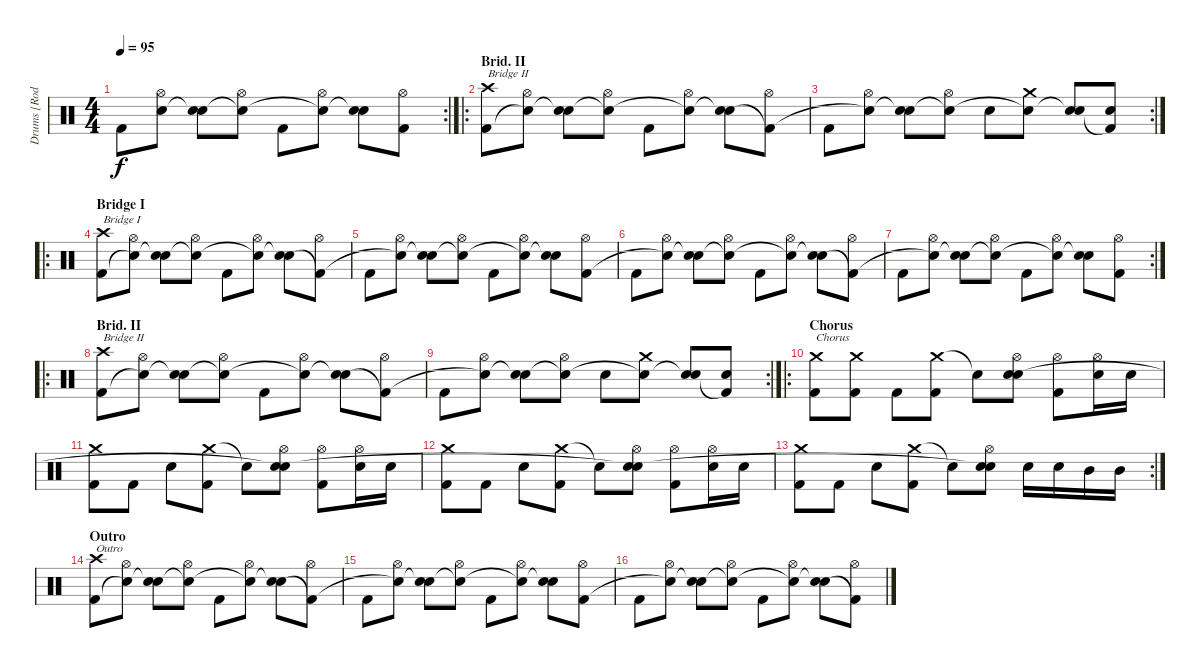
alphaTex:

\track ("Drums [Rodney Holder]" "Drums [Rod") {instrument percussion}
\staff {score}
\articulation defaults
\rc 2
\ts (4 4)
\tempo 95
\clef neutral
\ks c "Kick (hit) 2".8{dy f}
("Hi-Hat (open)" "Snare (hit)"{t}).8 ("Electric Snare (hit)" "Snare (hit)"{t}).8 ("Hi-Hat (open)" "Snare (hit)"{t}).8 "Kick (hit) 2".8 ("Hi-Hat (open)" "Snare (hit)"{t}).8 ("Electric Snare (hit)" "Snare (hit)"{t}).8 ("Hi-Hat (open)" "Kick (hit) 2").8 |
\ro
\section ("" "Brid. II")
("Crash high (hit)" "Kick (hit) 2").8{txt "Bridge II"} ("Hi-Hat (open)" "Snare (hit)"{t}).8 ("Electric Snare (hit)" "Snare (hit)"{t}).8 ("Hi-Hat (open)" "Snare (hit)"{t}).8 "Kick (hit) 2".8 ("Hi-Hat (open)" "Snare (hit)"{t}).8 ("Electric Snare (hit)" "Snare (hit)"{t}).8 ("Hi-Hat (open)" "Kick (hit) 2"{t}).8 |
\rc 2 "Kick (hit) 2".8
("Hi-Hat (open)" "Snare (hit)"{t}).8 ("Electric Snare (hit)" "Snare (hit)"{t}).8 ("Hi-Hat (open)" "Snare (hit)"{t}).8 "Electric Snare (hit)".8 ("Crash medium (hit)" "Snare (hit)"{t}).8 ("Electric Snare (hit)" "Snare (hit)"{t}).8 ("Electric Snare (hit)" "Kick (hit) 2"{t}).8 |
\ro
\section ("" "Bridge I")
("Crash high (hit)" "Kick (hit) 2").8{txt "Bridge I"} ("Hi-Hat (open)" "Snare (hit)"{t}).8 ("Electric Snare (hit)" "Snare (hit)"{t}).8 ("Hi-Hat (open)" "Snare (hit)"{t}).8 "Kick (hit) 2".8 ("Hi-Hat (open)" "Snare (hit)"{t}).8 ("Electric Snare (hit)" "Snare (hit)"{t}).8 ("Hi-Hat (open)" "Kick (hit) 2"{t}).8 |
"Kick (hit) 2".8 ("Hi-Hat (open)" "Snare (hit)"{t}).8 ("Electric Snare (hit)" "Snare (hit)"{t}).8 ("Hi-Hat (open)" "Snare (hit)"{t}).8 "Kick (hit) 2".8 ("Hi-Hat (open)" "Snare (hit)"{t}).8 ("Electric Snare (hit)" "Snare (hit)"{t}).8 ("Hi-Hat (open)" "Kick (hit) 2").8 |
"Kick (hit) 2".8 ("Hi-Hat (open)" "Snare (hit)"{t}).8 ("Electric Snare (hit)" "Snare (hit)"{t}).8 ("Hi-Hat (open)" "Snare (hit)"{t}).8 "Kick (hit) 2".8 ("Hi-Hat (open)" "Snare (hit)"{t}).8 ("Electric Snare (hit)" "Snare (hit)"{t}).8 ("Hi-Hat (open)" "Kick (hit) 2"{t}).8 |
\rc 2 "Kick (hit) 2".8
("Hi-Hat (open)" "Snare (hit)"{t}).8 ("Electric Snare (hit)" "Snare (hit)"{t}).8 ("Hi-Hat (open)" "Snare (hit)"{t}).8 "Kick (hit) 2".8 ("Hi-Hat (open)" "Snare (hit)"{t}).8 ("Electric Snare (hit)" "Snare (hit)"{t}).8 ("Hi-Hat (open)" "Kick (hit) 2").8 |
\ro
\section ("" "Brid. II")
("Crash high (hit)" "Kick (hit) 2").8{txt "Bridge II"} ("Hi-Hat (open)" "Snare (hit)"{t}).8 ("Electric Snare (hit)" "Snare (hit)"{t}).8 ("Hi-Hat (open)" "Snare (hit)"{t}).8 "Kick (hit) 2".8 ("Hi-Hat (open)" "Snare (hit)"{t}).8 ("Electric Snare (hit)" "Snare (hit)"{t}).8 ("Hi-Hat (open)" "Kick (hit) 2"{t}).8 |
\rc 2 "Kick (hit) 2".8
("Hi-Hat (open)" "Snare (hit)"{t}).8 ("Electric Snare (hit)" "Snare (hit)"{t}).8 ("Hi-Hat (open)" "Snare (hit)"{t}).8 "Electric Snare (hit)".8 ("Crash medium (hit)" "Snare (hit)"{t}).8 ("Electric Snare (hit)" "Snare (hit)"{t}).8 ("Electric Snare (hit)" "Kick (hit) 2"{t}).8 |
\ro
\section ("" "Chorus")
("Crash medium (hit)" "Kick (hit) 2").8{txt "Chorus"} ("Crash medium (hit)" "Kick (hit) 2").8 "Kick (hit) 2".8 ("Crash medium (hit)" "Kick (hit) 2").8 "Snare (hit)"{t}.8 ("Hi-Hat (open)" "Electric Snare (hit)" "Snare (hit)").8 ("Hi-Hat (open)" "Kick (hit) 2").8 ("Hi-Hat (open)" "Electric Snare (hit)").16 "Electric Snare (hit)".16 |
("Crash medium (hit)" "Kick (hit) 2").8 "Kick (hit) 2".8 "Electric Snare (hit)".8 ("Crash medium (hit)" "Kick (hit) 2").8 "Snare (hit)"{t}.8 ("Hi-Hat (open)" "Electric Snare (hit)" "Snare (hit)"{t}).8 ("Hi-Hat (open)" "Kick (hit) 2").8 ("Hi-Hat (open)" "Electric Snare (hit)").16 "Electric Snare (hit)".16 |
("Crash medium (hit)" "Kick (hit) 2").8 "Kick (hit) 2".8 "Electric Snare (hit)".8 ("Crash medium (hit)" "Kick (hit) 2").8 "Snare (hit)"{t}.8 ("Hi-Hat (open)" "Electric Snare (hit)" "Snare (hit)"{t}).8 ("Hi-Hat (open)" "Kick (hit) 2").8 ("Hi-Hat (open)" "Electric Snare (hit)").16 "Electric Snare (hit)".16 |
\rc 2
("Crash medium (hit)" "Kick (hit) 2").8 "Kick (hit) 2".8 "Electric Snare (hit)".8 ("Crash medium (hit)" "Kick (hit) 2").8 "Snare (hit)"{t}.8 ("Hi-Hat (open)" "Electric Snare (hit)" "Snare (hit)"{t}).8 "Electric Snare (hit)".16 "Electric Snare (hit)".16 "Mid Tom (hit)".16 "Mid Tom (hit)".16 |
\section ("" "Outro")
("Crash high (hit)" "Kick (hit) 2").8{txt "Outro"} ("Hi-Hat (open)" "Snare (hit)"{t}).8 ("Electric Snare (hit)" "Snare (hit)"{t}).8 ("Hi-Hat (open)" "Snare (hit)"{t}).8 "Kick (hit) 2".8 ("Hi-Hat (open)" "Snare (hit)"{t}).8 ("Electric Snare (hit)" "Snare (hit)"{t}).8 ("Hi-Hat (open)" "Kick (hit) 2"{t}).8 |
"Kick (hit) 2".8 ("Hi-Hat (open)" "Snare (hit)"{t}).8 ("Electric Snare (hit)" "Snare (hit)"{t}).8 ("Hi-Hat (open)" "Snare (hit)"{t}).8 "Kick (hit) 2".8 ("Hi-Hat (open)" "Snare (hit)"{t}).8 ("Electric Snare (hit)" "Snare (hit)"{t}).8 ("Hi-Hat (open)" "Kick (hit) 2").8 |
"Kick (hit) 2".8 ("Hi-Hat (open)" "Snare (hit)"{t}).8 ("Electric Snare (hit)" "Snare (hit)"{t}).8 ("Hi-Hat (open)" "Snare (hit)"{t}).8 "Kick (hit) 2".8 ("Hi-Hat (open)" "Snare (hit)"{t}).8 ("Electric Snare (hit)" "Snare (hit)"{t}).8 ("Hi-Hat (open)" "Kick (hit) 2"{t}).8
